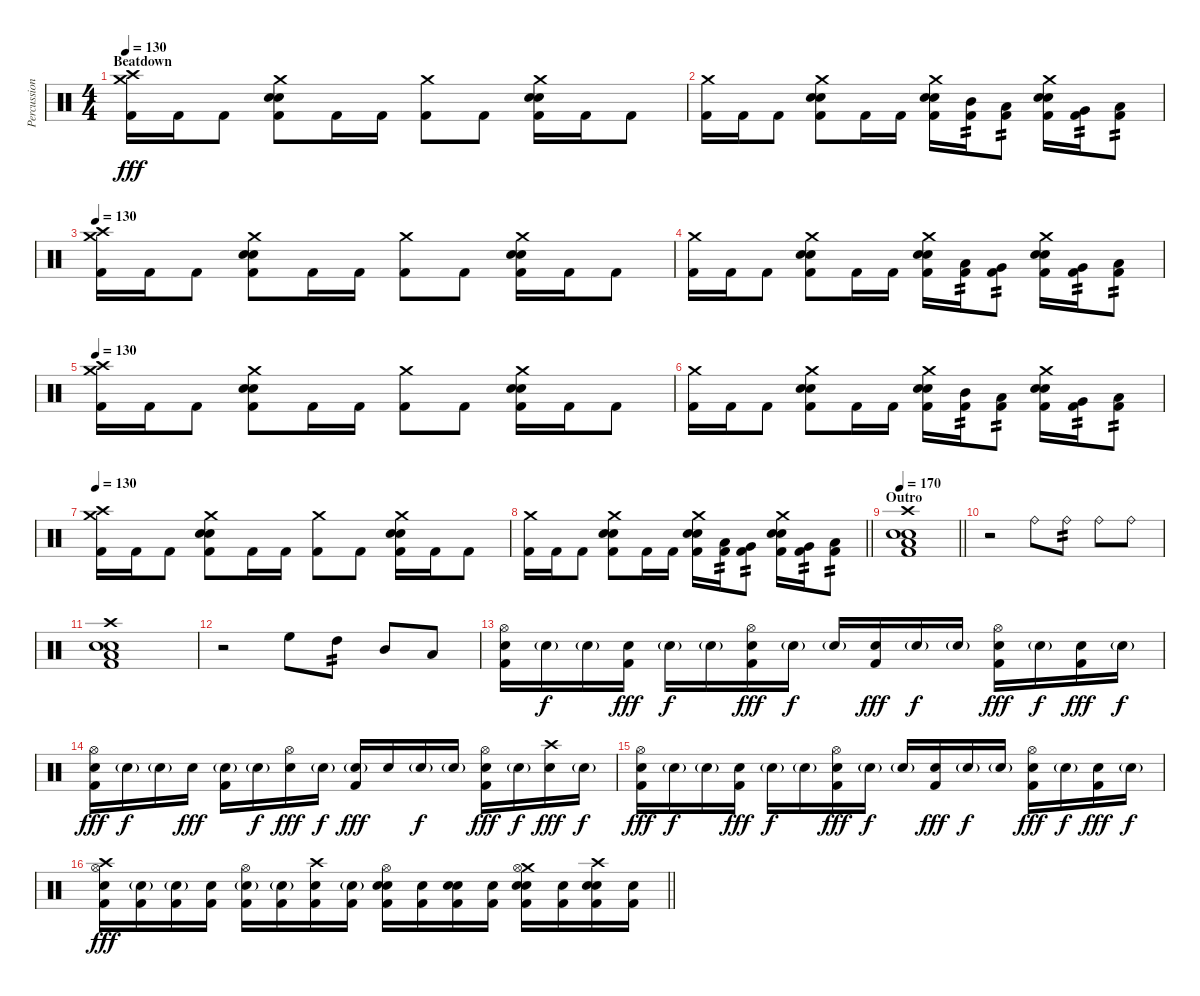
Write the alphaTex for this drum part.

\track ("Percussion" "Percussion") {instrument percussion}
\staff {score}
\articulation defaults
\ts (4 4)
\section ("" "Beatdown")
\tempo 130
\clef neutral
\ks c
("Crash medium (hit)" "Crash high (hit)" "Kick (hit) 2").16{dy fff} "Kick (hit) 2".16 "Kick (hit) 2".8 ("Crash medium (hit)" "Electric Snare (hit)" "Snare (hit) 2" "Kick (hit) 2").8 "Kick (hit) 2".16 "Kick (hit) 2".16 ("Crash medium (hit)" "Kick (hit) 2").8 "Kick (hit) 2".8 ("Crash medium (hit)" "Electric Snare (hit)" "Snare (hit) 2" "Kick (hit) 2").16 "Kick (hit) 2".16 "Kick (hit) 2".8 |
("Crash medium (hit)" "Kick (hit) 2").16 "Kick (hit) 2".16 "Kick (hit) 2".8 ("Crash medium (hit)" "Electric Snare (hit)" "Snare (hit) 2" "Kick (hit) 2").8 "Kick (hit) 2".16 "Kick (hit) 2".16 ("Crash medium (hit)" "Electric Snare (hit)" "Snare (hit) 2" "Kick (hit) 2").16 ("Mid Tom (hit)" "Kick (hit) 2").16{tp 2} ("Low Tom (hit)" "Kick (hit) 2").8{tp 2} ("Crash medium (hit)" "Electric Snare (hit)" "Snare (hit) 2" "Kick (hit) 2").16 ("Very Low Tom (hit)" "Kick (hit) 2").16{tp 2} ("Low Floor Tom (hit)" "Kick (hit) 2").8{tp 2} |
\tempo 130
("Crash medium (hit)" "Crash high (hit)" "Kick (hit) 2").16 "Kick (hit) 2".16 "Kick (hit) 2".8 ("Crash medium (hit)" "Electric Snare (hit)" "Snare (hit) 2" "Kick (hit) 2").8 "Kick (hit) 2".16 "Kick (hit) 2".16 ("Crash medium (hit)" "Kick (hit) 2").8 "Kick (hit) 2".8 ("Crash medium (hit)" "Electric Snare (hit)" "Snare (hit) 2" "Kick (hit) 2").16 "Kick (hit) 2".16 "Kick (hit) 2".8 |
("Crash medium (hit)" "Kick (hit) 2").16 "Kick (hit) 2".16 "Kick (hit) 2".8 ("Crash medium (hit)" "Electric Snare (hit)" "Snare (hit) 2" "Kick (hit) 2").8 "Kick (hit) 2".16 "Kick (hit) 2".16 ("Crash medium (hit)" "Electric Snare (hit)" "Snare (hit) 2" "Kick (hit) 2").16 ("Low Tom (hit)" "Kick (hit) 2").16{tp 2} ("Very Low Tom (hit)" "Kick (hit) 2").8{tp 2} ("Crash medium (hit)" "Electric Snare (hit)" "Snare (hit) 2" "Kick (hit) 2").16 ("Very Low Tom (hit)" "Kick (hit) 2").16{tp 2} ("Low Floor Tom (hit)" "Kick (hit) 2").8{tp 2} |
\tempo 130
("Crash medium (hit)" "Crash high (hit)" "Kick (hit) 2").16 "Kick (hit) 2".16 "Kick (hit) 2".8 ("Crash medium (hit)" "Electric Snare (hit)" "Snare (hit) 2" "Kick (hit) 2").8 "Kick (hit) 2".16 "Kick (hit) 2".16 ("Crash medium (hit)" "Kick (hit) 2").8 "Kick (hit) 2".8 ("Crash medium (hit)" "Electric Snare (hit)" "Snare (hit) 2" "Kick (hit) 2").16 "Kick (hit) 2".16 "Kick (hit) 2".8 |
("Crash medium (hit)" "Kick (hit) 2").16 "Kick (hit) 2".16 "Kick (hit) 2".8 ("Crash medium (hit)" "Electric Snare (hit)" "Snare (hit) 2" "Kick (hit) 2").8 "Kick (hit) 2".16 "Kick (hit) 2".16 ("Crash medium (hit)" "Electric Snare (hit)" "Snare (hit) 2" "Kick (hit) 2").16 ("Mid Tom (hit)" "Kick (hit) 2").16{tp 2} ("Low Tom (hit)" "Kick (hit) 2").8{tp 2} ("Crash medium (hit)" "Electric Snare (hit)" "Snare (hit) 2" "Kick (hit) 2").16 ("Very Low Tom (hit)" "Kick (hit) 2").16{tp 2} ("Low Floor Tom (hit)" "Kick (hit) 2").8{tp 2} |
\tempo 130
("Crash medium (hit)" "Crash high (hit)" "Kick (hit) 2").16 "Kick (hit) 2".16 "Kick (hit) 2".8 ("Crash medium (hit)" "Electric Snare (hit)" "Snare (hit) 2" "Kick (hit) 2").8 "Kick (hit) 2".16 "Kick (hit) 2".16 ("Crash medium (hit)" "Kick (hit) 2").8 "Kick (hit) 2".8 ("Crash medium (hit)" "Electric Snare (hit)" "Snare (hit) 2" "Kick (hit) 2").16 "Kick (hit) 2".16 "Kick (hit) 2".8 |
\barLineRight lightlight
("Crash medium (hit)" "Kick (hit) 2").16 "Kick (hit) 2".16 "Kick (hit) 2".8 ("Crash medium (hit)" "Electric Snare (hit)" "Snare (hit) 2" "Kick (hit) 2").8 "Kick (hit) 2".16 "Kick (hit) 2".16 ("Crash medium (hit)" "Electric Snare (hit)" "Snare (hit) 2" "Kick (hit) 2").16 ("Low Tom (hit)" "Kick (hit) 2").16{tp 2} ("Very Low Tom (hit)" "Kick (hit) 2").8{tp 2} ("Crash medium (hit)" "Electric Snare (hit)" "Snare (hit) 2" "Kick (hit) 2").16 ("Very Low Tom (hit)" "Kick (hit) 2").16{tp 2} ("Low Floor Tom (hit)" "Kick (hit) 2").8{tp 2} |
\section ("" "Outro")
\tempo 170
\barLineRight lightlight
("Crash high (hit)" "Electric Snare (hit)" "Snare (hit) 2" "Low Floor Tom (hit)" "Kick (hit) 2").1 |
r.2 "Ride (bell)".8 "Ride (bell)".8{tp 2} "Ride (bell)".8 "Ride (bell)".8 |
("Crash high (hit)" "Electric Snare (hit)" "Snare (hit) 2" "Low Floor Tom (hit)" "Kick (hit) 2").1 |
r.2 "High Floor Tom (hit)".8 "High Tom (hit)".8{tp 2} "Mid Tom (hit)".8 "Low Tom (hit)".8 |
("Hi-Hat (open)" "Electric Snare (hit)" "Kick (hit) 2").16 "Electric Snare (hit)"{g}.16{dy f} "Electric Snare (hit)"{g}.16 ("Electric Snare (hit)" "Kick (hit) 2").16{dy fff} "Electric Snare (hit)"{g}.16{dy f} "Electric Snare (hit)"{g}.16 ("Hi-Hat (open)" "Electric Snare (hit)" "Kick (hit) 2").16{dy fff} "Electric Snare (hit)"{g}.16{dy f} "Electric Snare (hit)"{g}.16 ("Electric Snare (hit)" "Kick (hit) 2").16{dy fff} "Electric Snare (hit)"{g}.16{dy f} "Electric Snare (hit)"{g}.16 ("Hi-Hat (open)" "Electric Snare (hit)" "Kick (hit) 2").16{dy fff} "Electric Snare (hit)"{g}.16{dy f} ("Electric Snare (hit)" "Kick (hit) 2").16{dy fff} "Electric Snare (hit)"{g}.16{dy f} |
("Hi-Hat (open)" "Electric Snare (hit)" "Kick (hit) 2").16{dy fff} "Electric Snare (hit)"{g}.16{dy f} "Electric Snare (hit)"{g}.16 "Electric Snare (hit)".16{dy fff} ("Electric Snare (hit)"{g} "Kick (hit) 2").16 "Electric Snare (hit)"{g}.16{dy f} ("Hi-Hat (open)" "Electric Snare (hit)").16{dy fff} "Electric Snare (hit)"{g}.16{dy f} ("Electric Snare (hit)"{g} "Kick (hit) 2").16{dy fff} "Electric Snare (hit)".16 "Electric Snare (hit)"{g}.16{dy f} "Electric Snare (hit)"{g}.16 ("Hi-Hat (open)" "Electric Snare (hit)" "Kick (hit) 2").16{dy fff} "Electric Snare (hit)"{g}.16{dy f} ("Crash high (hit)" "Electric Snare (hit)").16{dy fff} "Electric Snare (hit)"{g}.16{dy f} |
("Hi-Hat (open)" "Electric Snare (hit)" "Kick (hit) 2").16{dy fff} "Electric Snare (hit)"{g}.16{dy f} "Electric Snare (hit)"{g}.16 ("Electric Snare (hit)" "Kick (hit) 2").16{dy fff} "Electric Snare (hit)"{g}.16{dy f} "Electric Snare (hit)"{g}.16 ("Hi-Hat (open)" "Electric Snare (hit)" "Kick (hit) 2").16{dy fff} "Electric Snare (hit)"{g}.16{dy f} "Electric Snare (hit)"{g}.16 ("Electric Snare (hit)" "Kick (hit) 2").16{dy fff} "Electric Snare (hit)"{g}.16{dy f} "Electric Snare (hit)"{g}.16 ("Hi-Hat (open)" "Electric Snare (hit)" "Kick (hit) 2").16{dy fff} "Electric Snare (hit)"{g}.16{dy f} ("Electric Snare (hit)" "Kick (hit) 2").16{dy fff} "Electric Snare (hit)"{g}.16{dy f} |
\barLineRight lightlight
("Crash high (hit)" "Hi-Hat (open)" "Electric Snare (hit)" "Kick (hit) 2").16{dy fff} ("Electric Snare (hit)"{g} "Kick (hit) 2").16 ("Electric Snare (hit)"{g} "Kick (hit) 2").16 ("Electric Snare (hit)" "Kick (hit) 2").16 ("Hi-Hat (open)" "Electric Snare (hit)"{g} "Kick (hit) 2").16 ("Electric Snare (hit)"{g} "Kick (hit) 2").16 ("Crash high (hit)" "Electric Snare (hit)" "Kick (hit) 2").16 ("Electric Snare (hit)"{g} "Kick (hit) 2").16 ("Hi-Hat (open)" "Electric Snare (hit)" "Snare (hit) 2" "Kick (hit) 2").16 ("Electric Snare (hit)" "Kick (hit) 2").16 ("Electric Snare (hit)" "Snare (hit) 2" "Kick (hit) 2").16 ("Electric Snare (hit)" "Kick (hit) 2").16 ("Crash medium (hit)" "Hi-Hat (open)" "Electric Snare (hit)" "Snare (hit) 2" "Kick (hit) 2").16 ("Electric Snare (hit)" "Kick (hit) 2").16 ("Crash high (hit)" "Electric Snare (hit)" "Snare (hit) 2" "Kick (hit) 2").16 ("Electric Snare (hit)" "Kick (hit) 2").16
